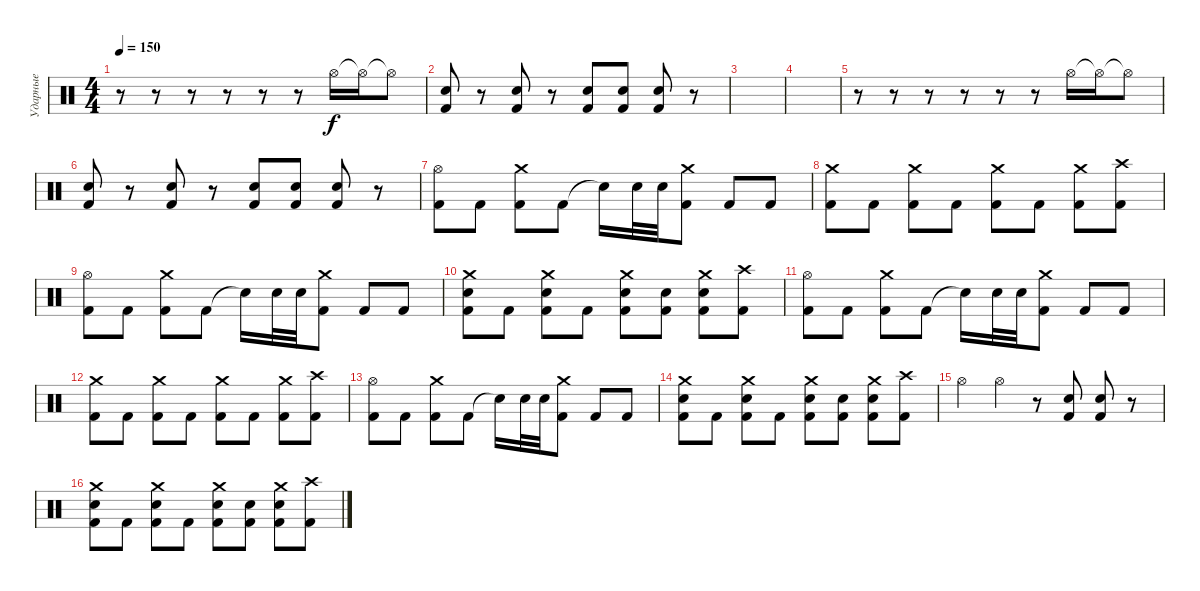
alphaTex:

\track ("Ударные" "Ударные") {instrument percussion}
\staff {score}
\articulation defaults
\ts (4 4)
\tempo 150
\clef neutral
\ks c
r.8{dy f} r.8 r.8 r.8 r.8 r.8 "Hi-Hat (open)".16 "Hi-Hat (open)"{t}.16 "Hi-Hat (open)"{t}.8 |
("Electric Snare (hit)" "Kick (hit) 2").8 r.8 ("Electric Snare (hit)" "Kick (hit) 2").8 r.8 ("Electric Snare (hit)" "Kick (hit) 2").8 ("Electric Snare (hit)" "Kick (hit) 2").8 ("Electric Snare (hit)" "Kick (hit) 2").8 r.8 |
|
|
r.8 r.8 r.8 r.8 r.8 r.8 "Hi-Hat (open)".16 "Hi-Hat (open)"{t}.16 "Hi-Hat (open)"{t}.8 |
("Electric Snare (hit)" "Kick (hit) 2").8 r.8 ("Electric Snare (hit)" "Kick (hit) 2").8 r.8 ("Electric Snare (hit)" "Kick (hit) 2").8 ("Electric Snare (hit)" "Kick (hit) 2").8 ("Electric Snare (hit)" "Kick (hit) 2").8 r.8 |
("Hi-Hat (open)" "Kick (hit) 2").8 "Kick (hit) 2".8 ("Crash medium (hit)" "Kick (hit) 2").8 "Kick (hit) 2".8 "Snare (hit)"{t}.16 "Electric Snare (hit)".32 "Electric Snare (hit)".32 ("Crash medium (hit)" "Kick (hit) 2").8 "Kick (hit) 2".8 "Kick (hit) 2".8 |
("Crash medium (hit)" "Kick (hit) 2").8 "Kick (hit) 2".8 ("Crash medium (hit)" "Kick (hit) 2").8 "Kick (hit) 2".8 ("Crash medium (hit)" "Kick (hit) 2").8 "Kick (hit) 2".8 ("Crash medium (hit)" "Kick (hit) 2").8 ("Crash high (hit)" "Kick (hit) 2").8 |
("Hi-Hat (open)" "Kick (hit) 2").8 "Kick (hit) 2".8 ("Crash medium (hit)" "Kick (hit) 2").8 "Kick (hit) 2".8 "Snare (hit)"{t}.16 "Electric Snare (hit)".32 "Electric Snare (hit)".32 ("Crash medium (hit)" "Kick (hit) 2").8 "Kick (hit) 2".8 "Kick (hit) 2".8 |
("Crash medium (hit)" "Electric Snare (hit)" "Kick (hit) 2").8 "Kick (hit) 2".8 ("Crash medium (hit)" "Electric Snare (hit)" "Kick (hit) 2").8 "Kick (hit) 2".8 ("Crash medium (hit)" "Electric Snare (hit)" "Kick (hit) 2").8 ("Electric Snare (hit)" "Kick (hit) 2").8 ("Crash medium (hit)" "Electric Snare (hit)" "Kick (hit) 2").8 ("Crash high (hit)" "Kick (hit) 2").8 |
("Hi-Hat (open)" "Kick (hit) 2").8 "Kick (hit) 2".8 ("Crash medium (hit)" "Kick (hit) 2").8 "Kick (hit) 2".8 "Snare (hit)"{t}.16 "Electric Snare (hit)".32 "Electric Snare (hit)".32 ("Crash medium (hit)" "Kick (hit) 2").8 "Kick (hit) 2".8 "Kick (hit) 2".8 |
("Crash medium (hit)" "Kick (hit) 2").8 "Kick (hit) 2".8 ("Crash medium (hit)" "Kick (hit) 2").8 "Kick (hit) 2".8 ("Crash medium (hit)" "Kick (hit) 2").8 "Kick (hit) 2".8 ("Crash medium (hit)" "Kick (hit) 2").8 ("Crash high (hit)" "Kick (hit) 2").8 |
("Hi-Hat (open)" "Kick (hit) 2").8 "Kick (hit) 2".8 ("Crash medium (hit)" "Kick (hit) 2").8 "Kick (hit) 2".8 "Snare (hit)"{t}.16 "Electric Snare (hit)".32 "Electric Snare (hit)".32 ("Crash medium (hit)" "Kick (hit) 2").8 "Kick (hit) 2".8 "Kick (hit) 2".8 |
("Crash medium (hit)" "Electric Snare (hit)" "Kick (hit) 2").8 "Kick (hit) 2".8 ("Crash medium (hit)" "Electric Snare (hit)" "Kick (hit) 2").8 "Kick (hit) 2".8 ("Crash medium (hit)" "Electric Snare (hit)" "Kick (hit) 2").8 ("Electric Snare (hit)" "Kick (hit) 2").8 ("Crash medium (hit)" "Electric Snare (hit)" "Kick (hit) 2").8 ("Crash high (hit)" "Kick (hit) 2").8 |
"Hi-Hat (open)".4 "Hi-Hat (open)".4 r.8 ("Electric Snare (hit)" "Kick (hit) 2").8 ("Electric Snare (hit)" "Kick (hit) 2").8 r.8 |
("Crash medium (hit)" "Electric Snare (hit)" "Kick (hit) 2").8 "Kick (hit) 2".8 ("Crash medium (hit)" "Electric Snare (hit)" "Kick (hit) 2").8 "Kick (hit) 2".8 ("Crash medium (hit)" "Electric Snare (hit)" "Kick (hit) 2").8 ("Electric Snare (hit)" "Kick (hit) 2").8 ("Crash medium (hit)" "Electric Snare (hit)" "Kick (hit) 2").8 ("Crash high (hit)" "Kick (hit) 2").8
